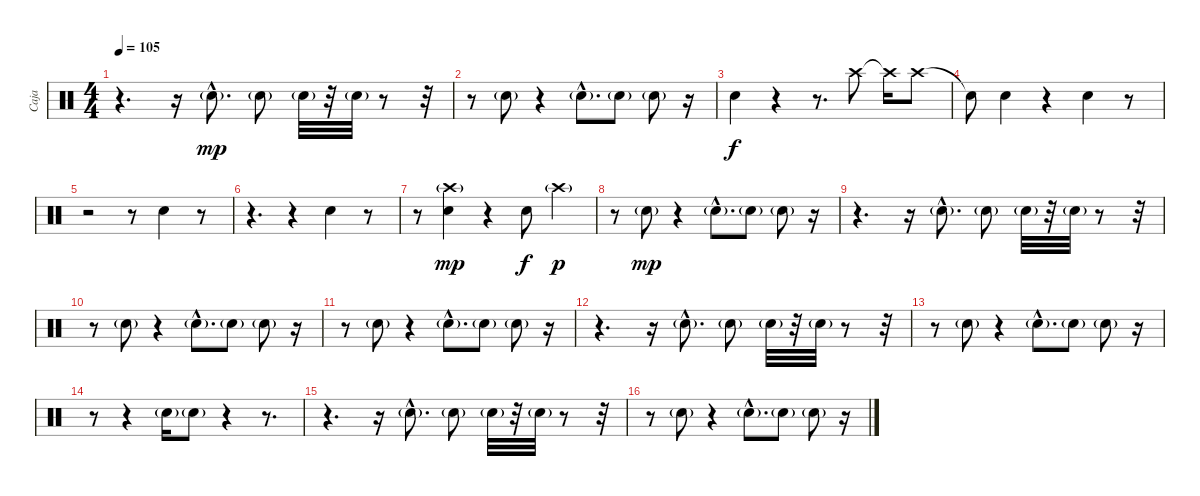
\track ("Caja" "Caja") {instrument percussion}
\staff {score}
\articulation defaults
\ts (4 4)
\tempo 105
\clef neutral
\ks c
r.4{d dy mp} r.16 "Electric Snare (hit)"{g hac}.8{d} "Electric Snare (hit)"{g}.8 "Electric Snare (hit)"{g}.32 r.32 "Electric Snare (hit)"{g}.32 r.8 r.32 |
r.8 "Electric Snare (hit)"{g}.8 r.4 "Electric Snare (hit)"{g hac}.8{d} "Electric Snare (hit)"{g}.8 "Electric Snare (hit)"{g}.8 r.16 |
"Electric Snare (hit)".4{dy f} r.4 r.8{d} "Crash high (hit)".8 "Crash high (hit)"{t}.16 "Crash high (hit)".8 |
"Snare (hit)"{t}.8 "Snare (hit) 2".4 r.4 "Snare (hit) 2".4 r.8 |
r.2 r.8 "Snare (hit) 2".4 r.8 |
r.4{d} r.4 "Snare (hit) 2".4 r.8 |
r.8 ("Snare (hit) 2" "Crash high (hit)"{g}).4{dy mp} r.4 "Snare (hit) 2".8{dy f} "Crash high (hit)"{g}.4{dy p} |
r.8 "Electric Snare (hit)"{g}.8{dy mp} r.4 "Electric Snare (hit)"{g hac}.8{d} "Electric Snare (hit)"{g}.8 "Electric Snare (hit)"{g}.8 r.16 |
r.4{d} r.16 "Electric Snare (hit)"{g hac}.8{d} "Electric Snare (hit)"{g}.8 "Electric Snare (hit)"{g}.32 r.32 "Electric Snare (hit)"{g}.32 r.8 r.32 |
r.8 "Electric Snare (hit)"{g}.8 r.4 "Electric Snare (hit)"{g hac}.8{d} "Electric Snare (hit)"{g}.8 "Electric Snare (hit)"{g}.8 r.16 |
r.8 "Electric Snare (hit)"{g}.8 r.4 "Electric Snare (hit)"{g hac}.8{d} "Electric Snare (hit)"{g}.8 "Electric Snare (hit)"{g}.8 r.16 |
r.4{d} r.16 "Electric Snare (hit)"{g hac}.8{d} "Electric Snare (hit)"{g}.8 "Electric Snare (hit)"{g}.32 r.32 "Electric Snare (hit)"{g}.32 r.8 r.32 |
r.8 "Electric Snare (hit)"{g}.8 r.4 "Electric Snare (hit)"{g hac}.8{d} "Electric Snare (hit)"{g}.8 "Electric Snare (hit)"{g}.8 r.16 |
r.8 r.4 "Electric Snare (hit)"{g}.16 "Electric Snare (hit)"{g}.8 r.4 r.8{d} |
r.4{d} r.16 "Electric Snare (hit)"{g hac}.8{d} "Electric Snare (hit)"{g}.8 "Electric Snare (hit)"{g}.32 r.32 "Electric Snare (hit)"{g}.32 r.8 r.32 |
r.8 "Electric Snare (hit)"{g}.8 r.4 "Electric Snare (hit)"{g hac}.8{d} "Electric Snare (hit)"{g}.8 "Electric Snare (hit)"{g}.8 r.16
